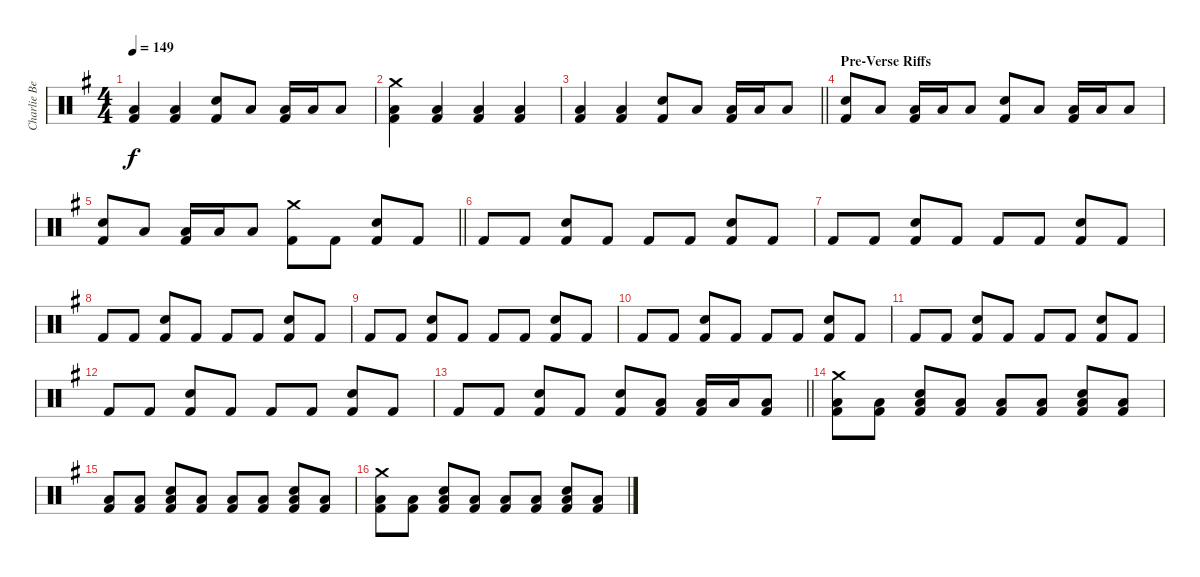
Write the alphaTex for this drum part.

\track ("Charlie Benate" "Charlie Be") {instrument percussion}
\staff {score}
\articulation defaults
\ts (4 4)
\tempo 149
\clef neutral
\ks g
("Low Tom (hit)" "Kick (hit) 2").4{dy f} ("Low Tom (hit)" "Kick (hit) 2").4 ("Snare (hit) 2" "Kick (hit) 2").8 "Low Tom (hit)".8 ("Low Tom (hit)" "Kick (hit) 2").16 "Low Tom (hit)".16 "Low Tom (hit)".8 |
("Crash medium (hit)" "Low Tom (hit)" "Kick (hit) 2").4 ("Low Tom (hit)" "Kick (hit) 2").4 ("Low Tom (hit)" "Kick (hit) 2").4 ("Low Tom (hit)" "Kick (hit) 2").4 |
\barLineRight lightlight
("Low Tom (hit)" "Kick (hit) 2").4 ("Low Tom (hit)" "Kick (hit) 2").4 ("Snare (hit) 2" "Kick (hit) 2").8 "Low Tom (hit)".8 ("Low Tom (hit)" "Kick (hit) 2").16 "Low Tom (hit)".16 "Low Tom (hit)".8 |
\section ("" "Pre-Verse Riffs")
("Snare (hit) 2" "Kick (hit) 2").8 "Low Tom (hit)".8 ("Low Tom (hit)" "Kick (hit) 2").16 "Low Tom (hit)".16 "Low Tom (hit)".8 ("Snare (hit) 2" "Kick (hit) 2").8 "Low Tom (hit)".8 ("Low Tom (hit)" "Kick (hit) 2").16 "Low Tom (hit)".16 "Low Tom (hit)".8 |
\barLineRight lightlight
("Snare (hit) 2" "Kick (hit) 2").8 "Low Tom (hit)".8 ("Low Tom (hit)" "Kick (hit) 2").16 "Low Tom (hit)".16 "Low Tom (hit)".8 ("Crash medium (hit)" "Kick (hit) 2").8 "Kick (hit) 2".8 ("Snare (hit) 2" "Kick (hit) 2").8 "Kick (hit) 2".8 |
"Kick (hit) 2".8 "Kick (hit) 2".8 ("Snare (hit) 2" "Kick (hit) 2").8 "Kick (hit) 2".8 "Kick (hit) 2".8 "Kick (hit) 2".8 ("Snare (hit) 2" "Kick (hit) 2").8 "Kick (hit) 2".8 |
"Kick (hit) 2".8 "Kick (hit) 2".8 ("Snare (hit) 2" "Kick (hit) 2").8 "Kick (hit) 2".8 "Kick (hit) 2".8 "Kick (hit) 2".8 ("Snare (hit) 2" "Kick (hit) 2").8 "Kick (hit) 2".8 |
"Kick (hit) 2".8 "Kick (hit) 2".8 ("Snare (hit) 2" "Kick (hit) 2").8 "Kick (hit) 2".8 "Kick (hit) 2".8 "Kick (hit) 2".8 ("Snare (hit) 2" "Kick (hit) 2").8 "Kick (hit) 2".8 |
"Kick (hit) 2".8 "Kick (hit) 2".8 ("Snare (hit) 2" "Kick (hit) 2").8 "Kick (hit) 2".8 "Kick (hit) 2".8 "Kick (hit) 2".8 ("Snare (hit) 2" "Kick (hit) 2").8 "Kick (hit) 2".8 |
"Kick (hit) 2".8 "Kick (hit) 2".8 ("Snare (hit) 2" "Kick (hit) 2").8 "Kick (hit) 2".8 "Kick (hit) 2".8 "Kick (hit) 2".8 ("Snare (hit) 2" "Kick (hit) 2").8 "Kick (hit) 2".8 |
"Kick (hit) 2".8 "Kick (hit) 2".8 ("Snare (hit) 2" "Kick (hit) 2").8 "Kick (hit) 2".8 "Kick (hit) 2".8 "Kick (hit) 2".8 ("Snare (hit) 2" "Kick (hit) 2").8 "Kick (hit) 2".8 |
"Kick (hit) 2".8 "Kick (hit) 2".8 ("Snare (hit) 2" "Kick (hit) 2").8 "Kick (hit) 2".8 "Kick (hit) 2".8 "Kick (hit) 2".8 ("Snare (hit) 2" "Kick (hit) 2").8 "Kick (hit) 2".8 |
\barLineRight lightlight "Kick (hit) 2".8 "Kick (hit) 2".8
("Snare (hit) 2" "Kick (hit) 2").8 "Kick (hit) 2".8 ("Snare (hit) 2" "Kick (hit) 2").8 ("Low Tom (hit)" "Kick (hit) 2").8 ("Low Tom (hit)" "Kick (hit) 2").16 "Low Tom (hit)".16 ("Low Tom (hit)" "Kick (hit) 2").8 |
("Crash medium (hit)" "Low Tom (hit)" "Kick (hit) 2").8 ("Low Tom (hit)" "Kick (hit) 2").8 ("Snare (hit) 2" "Low Tom (hit)" "Kick (hit) 2").8 ("Low Tom (hit)" "Kick (hit) 2").8 ("Low Tom (hit)" "Kick (hit) 2").8 ("Low Tom (hit)" "Kick (hit) 2").8 ("Snare (hit) 2" "Low Tom (hit)" "Kick (hit) 2").8 ("Low Tom (hit)" "Kick (hit) 2").8 |
("Low Tom (hit)" "Kick (hit) 2").8 ("Low Tom (hit)" "Kick (hit) 2").8 ("Snare (hit) 2" "Low Tom (hit)" "Kick (hit) 2").8 ("Low Tom (hit)" "Kick (hit) 2").8 ("Low Tom (hit)" "Kick (hit) 2").8 ("Low Tom (hit)" "Kick (hit) 2").8 ("Snare (hit) 2" "Low Tom (hit)" "Kick (hit) 2").8 ("Low Tom (hit)" "Kick (hit) 2").8 |
("Crash medium (hit)" "Low Tom (hit)" "Kick (hit) 2").8 ("Low Tom (hit)" "Kick (hit) 2").8 ("Snare (hit) 2" "Low Tom (hit)" "Kick (hit) 2").8 ("Low Tom (hit)" "Kick (hit) 2").8 ("Low Tom (hit)" "Kick (hit) 2").8 ("Low Tom (hit)" "Kick (hit) 2").8 ("Snare (hit) 2" "Low Tom (hit)" "Kick (hit) 2").8 ("Low Tom (hit)" "Kick (hit) 2").8
